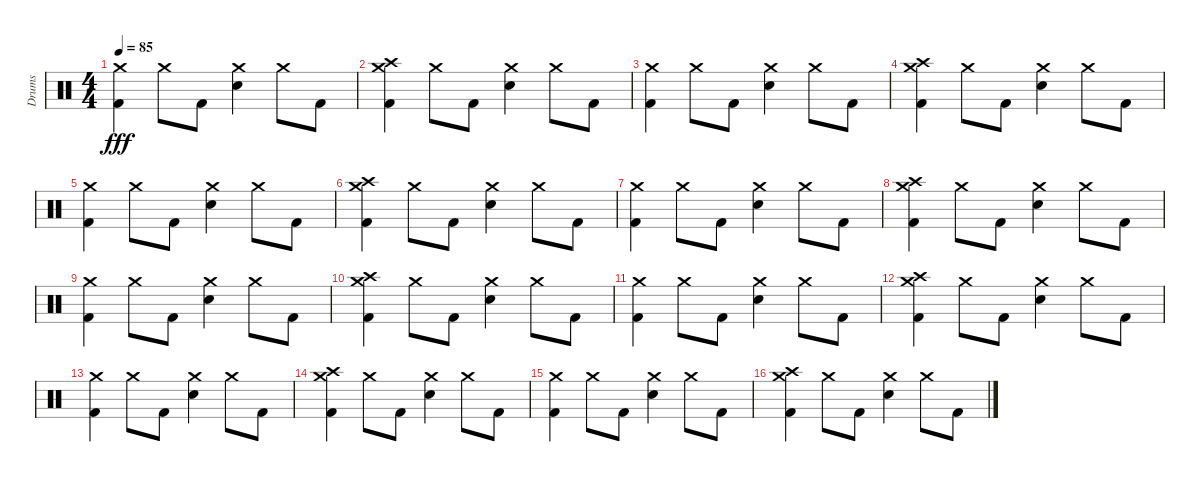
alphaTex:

\track ("Drums" "Drums") {instrument percussion}
\staff {score}
\articulation defaults
\ts (4 4)
\tempo 85
\clef neutral
\ks c
("Crash medium (hit)" "Kick (hit) 2").4{dy fff} "Crash medium (hit)".8 "Kick (hit) 2".8 ("Crash medium (hit)" "Snare (hit) 2").4 "Crash medium (hit)".8 "Kick (hit) 2".8 |
("Crash high (hit)" "Crash medium (hit)" "Kick (hit) 2").4 "Crash medium (hit)".8 "Kick (hit) 2".8 ("Crash medium (hit)" "Snare (hit) 2").4 "Crash medium (hit)".8 "Kick (hit) 2".8 |
("Crash medium (hit)" "Kick (hit) 2").4 "Crash medium (hit)".8 "Kick (hit) 2".8 ("Crash medium (hit)" "Snare (hit) 2").4 "Crash medium (hit)".8 "Kick (hit) 2".8 |
("Crash high (hit)" "Crash medium (hit)" "Kick (hit) 2").4 "Crash medium (hit)".8 "Kick (hit) 2".8 ("Crash medium (hit)" "Snare (hit) 2").4 "Crash medium (hit)".8 "Kick (hit) 2".8 |
("Crash medium (hit)" "Kick (hit) 2").4 "Crash medium (hit)".8 "Kick (hit) 2".8 ("Crash medium (hit)" "Snare (hit) 2").4 "Crash medium (hit)".8 "Kick (hit) 2".8 |
("Crash high (hit)" "Crash medium (hit)" "Kick (hit) 2").4 "Crash medium (hit)".8 "Kick (hit) 2".8 ("Crash medium (hit)" "Snare (hit) 2").4 "Crash medium (hit)".8 "Kick (hit) 2".8 |
("Crash medium (hit)" "Kick (hit) 2").4 "Crash medium (hit)".8 "Kick (hit) 2".8 ("Crash medium (hit)" "Snare (hit) 2").4 "Crash medium (hit)".8 "Kick (hit) 2".8 |
("Crash high (hit)" "Crash medium (hit)" "Kick (hit) 2").4 "Crash medium (hit)".8 "Kick (hit) 2".8 ("Crash medium (hit)" "Snare (hit) 2").4 "Crash medium (hit)".8 "Kick (hit) 2".8 |
("Crash medium (hit)" "Kick (hit) 2").4 "Crash medium (hit)".8 "Kick (hit) 2".8 ("Crash medium (hit)" "Snare (hit) 2").4 "Crash medium (hit)".8 "Kick (hit) 2".8 |
("Crash high (hit)" "Crash medium (hit)" "Kick (hit) 2").4 "Crash medium (hit)".8 "Kick (hit) 2".8 ("Crash medium (hit)" "Snare (hit) 2").4 "Crash medium (hit)".8 "Kick (hit) 2".8 |
("Crash medium (hit)" "Kick (hit) 2").4 "Crash medium (hit)".8 "Kick (hit) 2".8 ("Crash medium (hit)" "Snare (hit) 2").4 "Crash medium (hit)".8 "Kick (hit) 2".8 |
("Crash high (hit)" "Crash medium (hit)" "Kick (hit) 2").4 "Crash medium (hit)".8 "Kick (hit) 2".8 ("Crash medium (hit)" "Snare (hit) 2").4 "Crash medium (hit)".8 "Kick (hit) 2".8 |
("Crash medium (hit)" "Kick (hit) 2").4 "Crash medium (hit)".8 "Kick (hit) 2".8 ("Crash medium (hit)" "Snare (hit) 2").4 "Crash medium (hit)".8 "Kick (hit) 2".8 |
("Crash high (hit)" "Crash medium (hit)" "Kick (hit) 2").4 "Crash medium (hit)".8 "Kick (hit) 2".8 ("Crash medium (hit)" "Snare (hit) 2").4 "Crash medium (hit)".8 "Kick (hit) 2".8 |
("Crash medium (hit)" "Kick (hit) 2").4 "Crash medium (hit)".8 "Kick (hit) 2".8 ("Crash medium (hit)" "Snare (hit) 2").4 "Crash medium (hit)".8 "Kick (hit) 2".8 |
("Crash high (hit)" "Crash medium (hit)" "Kick (hit) 2").4 "Crash medium (hit)".8 "Kick (hit) 2".8 ("Crash medium (hit)" "Snare (hit) 2").4 "Crash medium (hit)".8 "Kick (hit) 2".8
